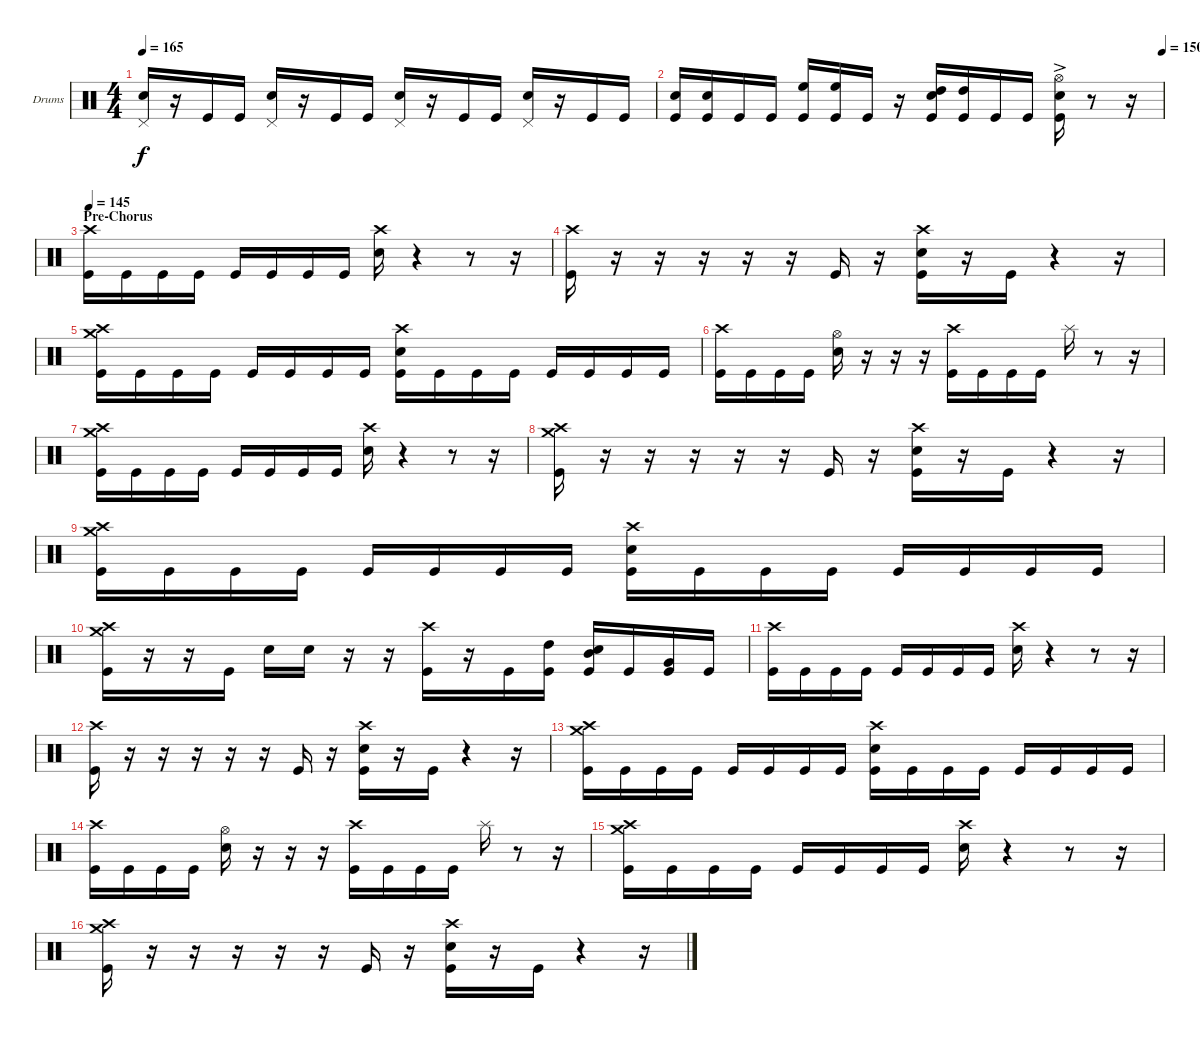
\bracketExtendMode groupsimilarinstruments
\firstSystemTrackNameOrientation horizontal
\otherSystemsTrackNameOrientation horizontal
\track ("Cory La Quay" "Drums") {instrument percussion}
\staff {score}
\articulation defaults
\ts (4 4)
\tempo 165
\clef neutral
\ks c
("Pedal Hi-Hat (hit)" "Snare (hit) 2").16{dy f} r.16 "Kick (hit)".16 "Kick (hit)".16 ("Pedal Hi-Hat (hit)" "Snare (hit) 2").16 r.16 "Kick (hit)".16 "Kick (hit)".16 ("Pedal Hi-Hat (hit)" "Snare (hit) 2").16 r.16 "Kick (hit)".16 "Kick (hit)".16 ("Pedal Hi-Hat (hit)" "Snare (hit) 2").16 r.16 "Kick (hit)".16 "Kick (hit)".16 |
\tempo (150 1)
("Snare (hit) 2" "Kick (hit)").16 ("Snare (hit) 2" "Kick (hit)").16 "Kick (hit)".16 "Kick (hit)".16 ("High Floor Tom (hit)" "Kick (hit)").16 ("High Floor Tom (hit)" "Kick (hit)").16 "Kick (hit)".16 r.16 ("High Tom (hit)" "Snare (hit) 2" "Kick (hit)").16 ("High Tom (hit)" "Kick (hit)").16 "Kick (hit)".16 "Kick (hit)".16 ("Snare (hit) 2" "Hi-Hat (open)" "Kick (hit)"{ac}).16 r.8 r.16 |
\section ("" "Pre-Chorus")
\tempo 145
("Crash high (hit)" "Kick (hit)").16 "Kick (hit)".16 "Kick (hit)".16 "Kick (hit)".16 "Kick (hit)".16 "Kick (hit)".16 "Kick (hit)".16 "Kick (hit)".16 ("Crash high (hit)" "Snare (hit) 2").16 r.4 r.8 r.16 |
("Crash high (hit)" "Kick (hit)").16 r.16 r.16 r.16 r.16 r.16 "Kick (hit)".16 r.16 ("Crash high (hit)" "Snare (hit) 2" "Kick (hit)").16 r.16 "Kick (hit)".16 r.4 r.16 |
("Crash high (hit)" "Crash medium (hit)" "Kick (hit)").16 "Kick (hit)".16 "Kick (hit)".16 "Kick (hit)".16 "Kick (hit)".16 "Kick (hit)".16 "Kick (hit)".16 "Kick (hit)".16 ("Crash high (hit)" "Snare (hit) 2" "Kick (hit)").16 "Kick (hit)".16 "Kick (hit)".16 "Kick (hit)".16 "Kick (hit)".16 "Kick (hit)".16 "Kick (hit)".16 "Kick (hit)".16 |
("Crash high (hit)" "Kick (hit)").16 "Kick (hit)".16 "Kick (hit)".16 "Kick (hit)".16 ("Hi-Hat (open)" "Snare (hit) 2").16 r.16 r.16 r.16 ("Crash high (hit)" "Kick (hit)").16 "Kick (hit)".16 "Kick (hit)".16 "Kick (hit)".16 "Splash (hit)".16 r.8 r.16 |
("Crash medium (hit)" "Crash high (hit)" "Kick (hit)").16 "Kick (hit)".16 "Kick (hit)".16 "Kick (hit)".16 "Kick (hit)".16 "Kick (hit)".16 "Kick (hit)".16 "Kick (hit)".16 ("Crash high (hit)" "Snare (hit) 2").16 r.4 r.8 r.16 |
("Crash medium (hit)" "Crash high (hit)" "Kick (hit)").16 r.16 r.16 r.16 r.16 r.16 "Kick (hit)".16 r.16 ("Crash high (hit)" "Snare (hit) 2" "Kick (hit)").16 r.16 "Kick (hit)".16 r.4 r.16 |
("Crash high (hit)" "Crash medium (hit)" "Kick (hit)").16 "Kick (hit)".16 "Kick (hit)".16 "Kick (hit)".16 "Kick (hit)".16 "Kick (hit)".16 "Kick (hit)".16 "Kick (hit)".16 ("Crash high (hit)" "Snare (hit) 2" "Kick (hit)").16 "Kick (hit)".16 "Kick (hit)".16 "Kick (hit)".16 "Kick (hit)".16 "Kick (hit)".16 "Kick (hit)".16 "Kick (hit)".16 |
("Crash high (hit)" "Crash medium (hit)" "Kick (hit)").16 r.16 r.16 "Kick (hit)".16 "Snare (hit) 2".16 "Snare (hit) 2".16 r.16 r.16 ("Crash high (hit)" "Kick (hit)").16 r.16 "Kick (hit)".16 ("Kick (hit)" "High Tom (hit)").16 ("Snare (hit) 2" "Kick (hit)" "Mid Tom (hit)").16 "Kick (hit)".16 ("Kick (hit)" "Very Low Tom (hit)").16 "Kick (hit)".16 |
("Crash high (hit)" "Kick (hit)").16 "Kick (hit)".16 "Kick (hit)".16 "Kick (hit)".16 "Kick (hit)".16 "Kick (hit)".16 "Kick (hit)".16 "Kick (hit)".16 ("Crash high (hit)" "Snare (hit) 2").16 r.4 r.8 r.16 |
("Crash high (hit)" "Kick (hit)").16 r.16 r.16 r.16 r.16 r.16 "Kick (hit)".16 r.16 ("Crash high (hit)" "Snare (hit) 2" "Kick (hit)").16 r.16 "Kick (hit)".16 r.4 r.16 |
("Crash high (hit)" "Crash medium (hit)" "Kick (hit)").16 "Kick (hit)".16 "Kick (hit)".16 "Kick (hit)".16 "Kick (hit)".16 "Kick (hit)".16 "Kick (hit)".16 "Kick (hit)".16 ("Crash high (hit)" "Snare (hit) 2" "Kick (hit)").16 "Kick (hit)".16 "Kick (hit)".16 "Kick (hit)".16 "Kick (hit)".16 "Kick (hit)".16 "Kick (hit)".16 "Kick (hit)".16 |
("Crash high (hit)" "Kick (hit)").16 "Kick (hit)".16 "Kick (hit)".16 "Kick (hit)".16 ("Hi-Hat (open)" "Snare (hit) 2").16 r.16 r.16 r.16 ("Crash high (hit)" "Kick (hit)").16 "Kick (hit)".16 "Kick (hit)".16 "Kick (hit)".16 "Splash (hit)".16 r.8 r.16 |
("Crash medium (hit)" "Crash high (hit)" "Kick (hit)").16 "Kick (hit)".16 "Kick (hit)".16 "Kick (hit)".16 "Kick (hit)".16 "Kick (hit)".16 "Kick (hit)".16 "Kick (hit)".16 ("Crash high (hit)" "Snare (hit) 2").16 r.4 r.8 r.16 |
("Crash medium (hit)" "Crash high (hit)" "Kick (hit)").16 r.16 r.16 r.16 r.16 r.16 "Kick (hit)".16 r.16 ("Crash high (hit)" "Snare (hit) 2" "Kick (hit)").16 r.16 "Kick (hit)".16 r.4 r.16
